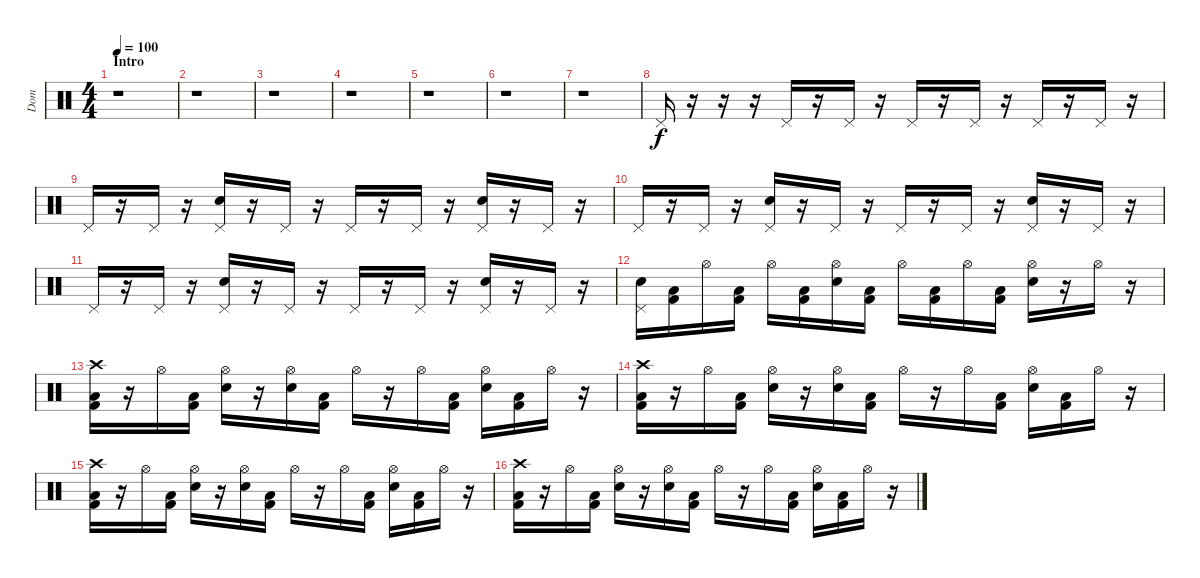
\track ("Dom" "Dom") {instrument percussion}
\staff {score}
\articulation defaults
\ts (4 4)
\section ("" "Intro")
\tempo 100
\clef neutral
\ks c
r.1{dy f} |
r.1 |
r.1 |
r.1 |
r.1 |
r.1 |
r.1 |
"Pedal Hi-Hat (hit)".16 r.16 r.16 r.16 "Pedal Hi-Hat (hit)".16 r.16 "Pedal Hi-Hat (hit)".16 r.16 "Pedal Hi-Hat (hit)".16 r.16 "Pedal Hi-Hat (hit)".16 r.16 "Pedal Hi-Hat (hit)".16 r.16 "Pedal Hi-Hat (hit)".16 r.16 |
"Pedal Hi-Hat (hit)".16 r.16 "Pedal Hi-Hat (hit)".16 r.16 ("Pedal Hi-Hat (hit)" "Electric Snare (hit)").16 r.16 "Pedal Hi-Hat (hit)".16 r.16 "Pedal Hi-Hat (hit)".16 r.16 "Pedal Hi-Hat (hit)".16 r.16 ("Pedal Hi-Hat (hit)" "Electric Snare (hit)").16 r.16 "Pedal Hi-Hat (hit)".16 r.16 |
"Pedal Hi-Hat (hit)".16 r.16 "Pedal Hi-Hat (hit)".16 r.16 ("Pedal Hi-Hat (hit)" "Electric Snare (hit)").16 r.16 "Pedal Hi-Hat (hit)".16 r.16 "Pedal Hi-Hat (hit)".16 r.16 "Pedal Hi-Hat (hit)".16 r.16 ("Pedal Hi-Hat (hit)" "Electric Snare (hit)").16 r.16 "Pedal Hi-Hat (hit)".16 r.16 |
"Pedal Hi-Hat (hit)".16 r.16 "Pedal Hi-Hat (hit)".16 r.16 ("Pedal Hi-Hat (hit)" "Electric Snare (hit)").16 r.16 "Pedal Hi-Hat (hit)".16 r.16 "Pedal Hi-Hat (hit)".16 r.16 "Pedal Hi-Hat (hit)".16 r.16 ("Pedal Hi-Hat (hit)" "Electric Snare (hit)").16 r.16 "Pedal Hi-Hat (hit)".16 r.16 |
("Pedal Hi-Hat (hit)" "Electric Snare (hit)").16 ("Low Floor Tom (hit)" "Kick (hit) 2").16 "Hi-Hat (open)".16 ("Low Floor Tom (hit)" "Kick (hit) 2").16 "Hi-Hat (open)".16 ("Low Floor Tom (hit)" "Kick (hit) 2").16 ("Hi-Hat (open)" "Electric Snare (hit)").16 ("Low Floor Tom (hit)" "Kick (hit) 2").16 "Hi-Hat (open)".16 ("Low Floor Tom (hit)" "Kick (hit) 2").16 "Hi-Hat (open)".16 ("Low Floor Tom (hit)" "Kick (hit) 2").16 ("Hi-Hat (open)" "Electric Snare (hit)").16 r.16 "Hi-Hat (open)".16 r.16 |
("Crash high (hit)" "Low Floor Tom (hit)" "Kick (hit) 2").16 r.16 "Hi-Hat (open)".16 ("Low Floor Tom (hit)" "Kick (hit) 2").16 ("Hi-Hat (open)" "Electric Snare (hit)").16 r.16 ("Hi-Hat (open)" "Electric Snare (hit)").16 ("Low Floor Tom (hit)" "Kick (hit) 2").16 "Hi-Hat (open)".16 r.16 "Hi-Hat (open)".16 ("Low Floor Tom (hit)" "Kick (hit) 2").16 ("Hi-Hat (open)" "Electric Snare (hit)").16 ("Low Floor Tom (hit)" "Kick (hit) 2").16 "Hi-Hat (open)".16 r.16 |
("Crash high (hit)" "Low Floor Tom (hit)" "Kick (hit) 2").16 r.16 "Hi-Hat (open)".16 ("Low Floor Tom (hit)" "Kick (hit) 2").16 ("Hi-Hat (open)" "Electric Snare (hit)").16 r.16 ("Hi-Hat (open)" "Electric Snare (hit)").16 ("Low Floor Tom (hit)" "Kick (hit) 2").16 "Hi-Hat (open)".16 r.16 "Hi-Hat (open)".16 ("Low Floor Tom (hit)" "Kick (hit) 2").16 ("Hi-Hat (open)" "Electric Snare (hit)").16 ("Low Floor Tom (hit)" "Kick (hit) 2").16 "Hi-Hat (open)".16 r.16 |
("Crash high (hit)" "Low Floor Tom (hit)" "Kick (hit) 2").16 r.16 "Hi-Hat (open)".16 ("Low Floor Tom (hit)" "Kick (hit) 2").16 ("Hi-Hat (open)" "Electric Snare (hit)").16 r.16 ("Hi-Hat (open)" "Electric Snare (hit)").16 ("Low Floor Tom (hit)" "Kick (hit) 2").16 "Hi-Hat (open)".16 r.16 "Hi-Hat (open)".16 ("Low Floor Tom (hit)" "Kick (hit) 2").16 ("Hi-Hat (open)" "Electric Snare (hit)").16 ("Low Floor Tom (hit)" "Kick (hit) 2").16 "Hi-Hat (open)".16 r.16 |
("Crash high (hit)" "Low Floor Tom (hit)" "Kick (hit) 2").16 r.16 "Hi-Hat (open)".16 ("Low Floor Tom (hit)" "Kick (hit) 2").16 ("Hi-Hat (open)" "Electric Snare (hit)").16 r.16 ("Hi-Hat (open)" "Electric Snare (hit)").16 ("Low Floor Tom (hit)" "Kick (hit) 2").16 "Hi-Hat (open)".16 r.16 "Hi-Hat (open)".16 ("Low Floor Tom (hit)" "Kick (hit) 2").16 ("Hi-Hat (open)" "Electric Snare (hit)").16 ("Low Floor Tom (hit)" "Kick (hit) 2").16 "Hi-Hat (open)".16 r.16
